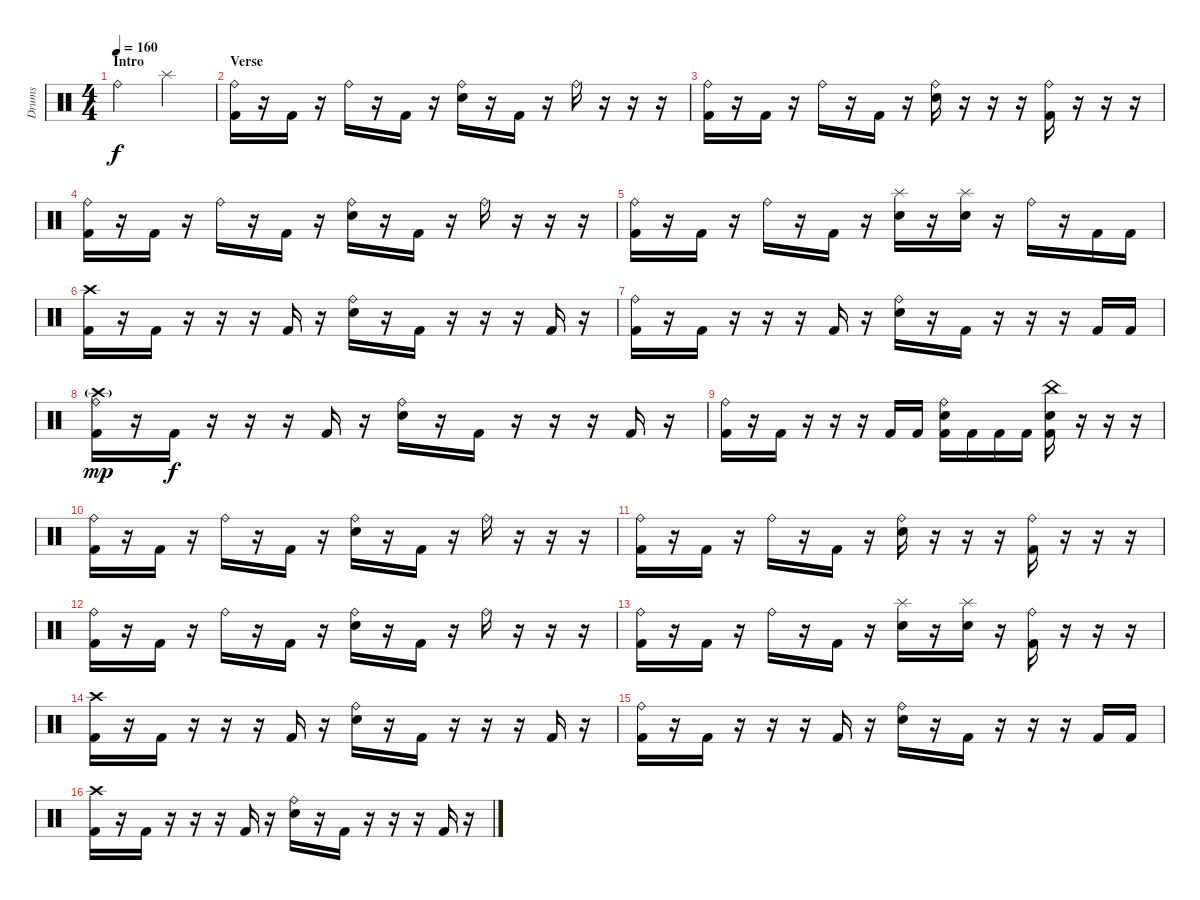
\track ("Drums" "Drums") {instrument percussion}
\staff {score}
\articulation defaults
\ts (4 4)
\section ("" "Intro")
\tempo 160
\clef neutral
\ks c "Ride (bell)".2{dy f} "Splash (hit)".2
|
\section ("" "Verse")
("Ride (bell)" "Kick (hit) 2").16 r.16 "Kick (hit) 2".16 r.16 "Ride (bell)".16 r.16 "Kick (hit) 2".16 r.16 ("Ride (bell)" "Snare (hit) 2").16 r.16 "Kick (hit) 2".16 r.16 "Ride (bell)".16 r.16 r.16 r.16 |
("Ride (bell)" "Kick (hit) 2").16 r.16 "Kick (hit) 2".16 r.16 "Ride (bell)".16 r.16 "Kick (hit) 2".16 r.16 ("Ride (bell)" "Snare (hit) 2").16 r.16 r.16 r.16 ("Ride (bell)" "Kick (hit) 2").16 r.16 r.16 r.16 |
("Ride (bell)" "Kick (hit) 2").16 r.16 "Kick (hit) 2".16 r.16 "Ride (bell)".16 r.16 "Kick (hit) 2".16 r.16 ("Ride (bell)" "Snare (hit) 2").16 r.16 "Kick (hit) 2".16 r.16 "Ride (bell)".16 r.16 r.16 r.16 |
("Ride (bell)" "Kick (hit) 2").16 r.16 "Kick (hit) 2".16 r.16 "Ride (bell)".16 r.16 "Kick (hit) 2".16 r.16 ("Splash (hit)" "Snare (hit) 2").16 r.16 ("Splash (hit)" "Snare (hit) 2").16 r.16 "Ride (bell)".16 r.16 "Kick (hit) 2".16 "Kick (hit) 2".16 |
("Crash high (hit)" "Kick (hit) 2").16 r.16 "Kick (hit) 2".16 r.16 r.16 r.16 "Kick (hit) 2".16 r.16 ("Ride (bell)" "Snare (hit) 2").16 r.16 "Kick (hit) 2".16 r.16 r.16 r.16 "Kick (hit) 2".16 r.16 |
("Ride (bell)" "Kick (hit) 2").16 r.16 "Kick (hit) 2".16 r.16 r.16 r.16 "Kick (hit) 2".16 r.16 ("Ride (bell)" "Snare (hit) 2").16 r.16 "Kick (hit) 2".16 r.16 r.16 r.16 "Kick (hit) 2".16 "Kick (hit) 2".16 |
("Ride (bell)" "Crash high (hit)"{g} "Kick (hit) 2").16{dy mp} r.16 "Kick (hit) 2".16{dy f} r.16 r.16 r.16 "Kick (hit) 2".16 r.16 ("Ride (bell)" "Snare (hit) 2").16 r.16 "Kick (hit) 2".16 r.16 r.16 r.16 "Kick (hit) 2".16 r.16 |
("Ride (bell)" "Kick (hit) 2").16 r.16 "Kick (hit) 2".16 r.16 r.16 r.16 "Kick (hit) 2".16 "Kick (hit) 2".16 ("Ride (bell)" "Snare (hit) 2" "Kick (hit) 2").16 "Kick (hit) 2".16 "Kick (hit) 2".16 "Kick (hit) 2".16 ("China (hit)" "Snare (hit) 2" "Kick (hit) 2").16 r.16 r.16 r.16 |
("Ride (bell)" "Kick (hit) 2").16 r.16 "Kick (hit) 2".16 r.16 "Ride (bell)".16 r.16 "Kick (hit) 2".16 r.16 ("Ride (bell)" "Snare (hit) 2").16 r.16 "Kick (hit) 2".16 r.16 "Ride (bell)".16 r.16 r.16 r.16 |
("Ride (bell)" "Kick (hit) 2").16 r.16 "Kick (hit) 2".16 r.16 "Ride (bell)".16 r.16 "Kick (hit) 2".16 r.16 ("Ride (bell)" "Snare (hit) 2").16 r.16 r.16 r.16 ("Ride (bell)" "Kick (hit) 2").16 r.16 r.16 r.16 |
("Ride (bell)" "Kick (hit) 2").16 r.16 "Kick (hit) 2".16 r.16 "Ride (bell)".16 r.16 "Kick (hit) 2".16 r.16 ("Ride (bell)" "Snare (hit) 2").16 r.16 "Kick (hit) 2".16 r.16 "Ride (bell)".16 r.16 r.16 r.16 |
("Ride (bell)" "Kick (hit) 2").16 r.16 "Kick (hit) 2".16 r.16 "Ride (bell)".16 r.16 "Kick (hit) 2".16 r.16 ("Splash (hit)" "Snare (hit) 2").16 r.16 ("Splash (hit)" "Snare (hit) 2").16 r.16 ("Ride (bell)" "Kick (hit) 2").16 r.16 r.16 r.16 |
("Crash high (hit)" "Kick (hit) 2").16 r.16 "Kick (hit) 2".16 r.16 r.16 r.16 "Kick (hit) 2".16 r.16 ("Ride (bell)" "Snare (hit) 2").16 r.16 "Kick (hit) 2".16 r.16 r.16 r.16 "Kick (hit) 2".16 r.16 |
("Ride (bell)" "Kick (hit) 2").16 r.16 "Kick (hit) 2".16 r.16 r.16 r.16 "Kick (hit) 2".16 r.16 ("Ride (bell)" "Snare (hit) 2").16 r.16 "Kick (hit) 2".16 r.16 r.16 r.16 "Kick (hit) 2".16 "Kick (hit) 2".16 |
("Crash high (hit)" "Kick (hit) 2").16 r.16 "Kick (hit) 2".16 r.16 r.16 r.16 "Kick (hit) 2".16 r.16 ("Ride (bell)" "Snare (hit) 2").16 r.16 "Kick (hit) 2".16 r.16 r.16 r.16 "Kick (hit) 2".16 r.16
